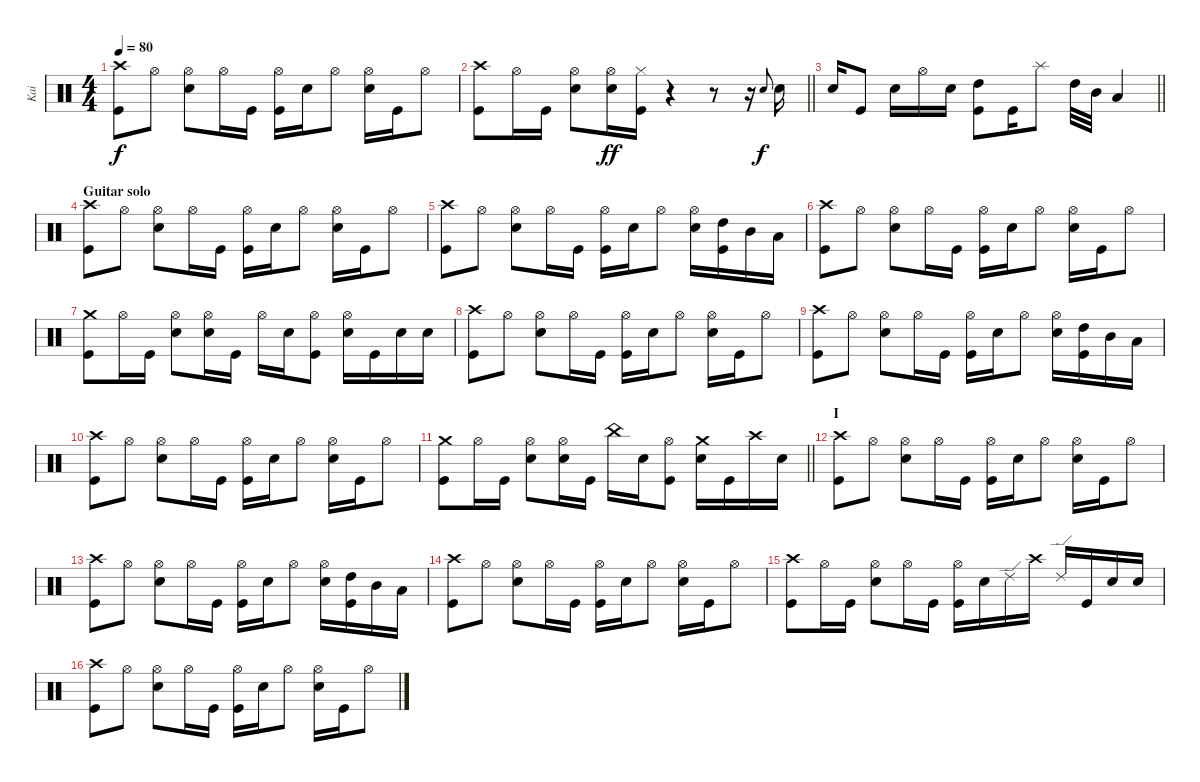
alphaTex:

\track ("Kai" "Kai") {instrument percussion}
\staff {score}
\articulation defaults
\ts (4 4)
\tempo 80
\clef neutral
\ks c
("Kick (hit)" "Crash high (hit)").8{dy f} "Hi-Hat (open)".8 ("Snare (hit) 2" "Hi-Hat (open)").8 "Hi-Hat (open)".16 "Kick (hit)".16 ("Kick (hit)" "Hi-Hat (open)").16 "Snare (hit) 2".16 "Hi-Hat (open)".8 ("Snare (hit) 2" "Hi-Hat (open)").16 "Kick (hit)".16 "Hi-Hat (open)".8 |
\barLineRight lightlight
("Kick (hit)" "Crash high (hit)").8 "Hi-Hat (open)".16 "Kick (hit)".16 ("Snare (hit) 2" "Hi-Hat (open)").8 ("Hi-Hat (open)" "Snare (hit) 2").16{dy ff} ("Kick (hit)" "Hi-Hat (closed)").16 r.4 r.8 r.16 "Snare (hit) 2".8{gr onbeat dy f} "Snare (hit) 2".16 |
\section ("" "")
\barLineRight lightlight "Snare (hit) 2".16{beam merge} "Kick (hit)".8{beam split} "Snare (hit) 2".16{beam merge} "Hi-Hat (open)".16{beam merge} "Snare (hit) 2".16{beam split}
("High Tom (hit)" "Kick (hit)").8{beam merge} "Kick (hit)".16{beam merge} "Splash (hit)".8{beam split} "High Tom (hit)".32{beam merge} "Mid Tom (hit)".32 "Low Tom (hit)".4 |
\section ("" "Guitar solo")
("Kick (hit)" "Crash high (hit)").8 "Hi-Hat (open)".8 ("Snare (hit) 2" "Hi-Hat (open)").8 "Hi-Hat (open)".16 "Kick (hit)".16 ("Kick (hit)" "Hi-Hat (open)").16 "Snare (hit) 2".16 "Hi-Hat (open)".8 ("Snare (hit) 2" "Hi-Hat (open)").16 "Kick (hit)".16 "Hi-Hat (open)".8 |
("Kick (hit)" "Crash high (hit)").8 "Hi-Hat (open)".8 ("Snare (hit) 2" "Hi-Hat (open)").8 "Hi-Hat (open)".16 "Kick (hit)".16 ("Kick (hit)" "Hi-Hat (open)").16 "Snare (hit) 2".16 "Hi-Hat (open)".8 ("Snare (hit) 2" "Hi-Hat (open)").16 ("High Tom (hit)" "Kick (hit)").16 "Mid Tom (hit)".16 "Low Tom (hit)".16 |
("Kick (hit)" "Crash high (hit)").8 "Hi-Hat (open)".8 ("Snare (hit) 2" "Hi-Hat (open)").8 "Hi-Hat (open)".16 "Kick (hit)".16 ("Kick (hit)" "Hi-Hat (open)").16 "Snare (hit) 2".16 "Hi-Hat (open)".8 ("Snare (hit) 2" "Hi-Hat (open)").16 "Kick (hit)".16 "Hi-Hat (open)".8 |
("Crash medium (hit)" "Kick (hit)").8 "Hi-Hat (open)".16 "Kick (hit)".16 ("Snare (hit) 2" "Hi-Hat (open)").8 ("Snare (hit) 2" "Hi-Hat (open)").16 "Kick (hit)".16 "Hi-Hat (open)".16 "Snare (hit) 2".16 ("Hi-Hat (open)" "Kick (hit)").8 ("Snare (hit) 2" "Hi-Hat (open)").16 "Kick (hit)".16 "Snare (hit) 2".16 "Snare (hit) 2".16 |
("Kick (hit)" "Crash high (hit)").8 "Hi-Hat (open)".8 ("Snare (hit) 2" "Hi-Hat (open)").8 "Hi-Hat (open)".16 "Kick (hit)".16 ("Kick (hit)" "Hi-Hat (open)").16 "Snare (hit) 2".16 "Hi-Hat (open)".8 ("Snare (hit) 2" "Hi-Hat (open)").16 "Kick (hit)".16 "Hi-Hat (open)".8 |
("Kick (hit)" "Crash high (hit)").8 "Hi-Hat (open)".8 ("Snare (hit) 2" "Hi-Hat (open)").8 "Hi-Hat (open)".16 "Kick (hit)".16 ("Kick (hit)" "Hi-Hat (open)").16 "Snare (hit) 2".16 "Hi-Hat (open)".8 ("Snare (hit) 2" "Hi-Hat (open)").16 ("High Tom (hit)" "Kick (hit)").16 "Mid Tom (hit)".16 "Low Tom (hit)".16 |
("Kick (hit)" "Crash high (hit)").8 "Hi-Hat (open)".8 ("Snare (hit) 2" "Hi-Hat (open)").8 "Hi-Hat (open)".16 "Kick (hit)".16 ("Kick (hit)" "Hi-Hat (open)").16 "Snare (hit) 2".16 "Hi-Hat (open)".8 ("Snare (hit) 2" "Hi-Hat (open)").16 "Kick (hit)".16 "Hi-Hat (open)".8 |
\barLineRight lightlight
("Crash medium (hit)" "Kick (hit)").8 "Hi-Hat (open)".16 "Kick (hit)".16 ("Snare (hit) 2" "Hi-Hat (open)").8 ("Snare (hit) 2" "Hi-Hat (open)").16 "Kick (hit)".16 "China (hit)".16 "Snare (hit) 2".16 ("Hi-Hat (open)" "Kick (hit)").8 ("Snare (hit) 2" "Crash medium (hit)").16 "Kick (hit)".16 "Crash high (hit)".16 "Snare (hit) 2".16 |
\section ("" "I")
("Kick (hit)" "Crash high (hit)").8 "Hi-Hat (open)".8 ("Snare (hit) 2" "Hi-Hat (open)").8 "Hi-Hat (open)".16 "Kick (hit)".16 ("Kick (hit)" "Hi-Hat (open)").16 "Snare (hit) 2".16 "Hi-Hat (open)".8 ("Snare (hit) 2" "Hi-Hat (open)").16 "Kick (hit)".16 "Hi-Hat (open)".8 |
("Kick (hit)" "Crash high (hit)").8 "Hi-Hat (open)".8 ("Snare (hit) 2" "Hi-Hat (open)").8 "Hi-Hat (open)".16 "Kick (hit)".16 ("Kick (hit)" "Hi-Hat (open)").16 "Snare (hit) 2".16 "Hi-Hat (open)".8 ("Snare (hit) 2" "Hi-Hat (open)").16 ("High Tom (hit)" "Kick (hit)").16 "Mid Tom (hit)".16 "Low Tom (hit)".16 |
("Kick (hit)" "Crash high (hit)").8 "Hi-Hat (open)".8 ("Snare (hit) 2" "Hi-Hat (open)").8 "Hi-Hat (open)".16 "Kick (hit)".16 ("Kick (hit)" "Hi-Hat (open)").16 "Snare (hit) 2".16 "Hi-Hat (open)".8 ("Snare (hit) 2" "Hi-Hat (open)").16 "Kick (hit)".16 "Hi-Hat (open)".8 |
("Kick (hit)" "Crash high (hit)").8 "Hi-Hat (open)".16 "Kick (hit)".16 ("Snare (hit) 2" "Hi-Hat (open)").8 "Hi-Hat (open)".16 "Kick (hit)".16 ("Kick (hit)" "Hi-Hat (open)").16 "Snare (hit) 2".16 "Ride (edge) 2".16 "Crash high (hit)".16 "Ride (edge) 2".16 "Kick (hit)".16 "Snare (hit) 2".16 "Snare (hit) 2".16 |
("Kick (hit)" "Crash high (hit)").8 "Hi-Hat (open)".8 ("Snare (hit) 2" "Hi-Hat (open)").8 "Hi-Hat (open)".16 "Kick (hit)".16 ("Kick (hit)" "Hi-Hat (open)").16 "Snare (hit) 2".16 "Hi-Hat (open)".8 ("Snare (hit) 2" "Hi-Hat (open)").16 "Kick (hit)".16 "Hi-Hat (open)".8
